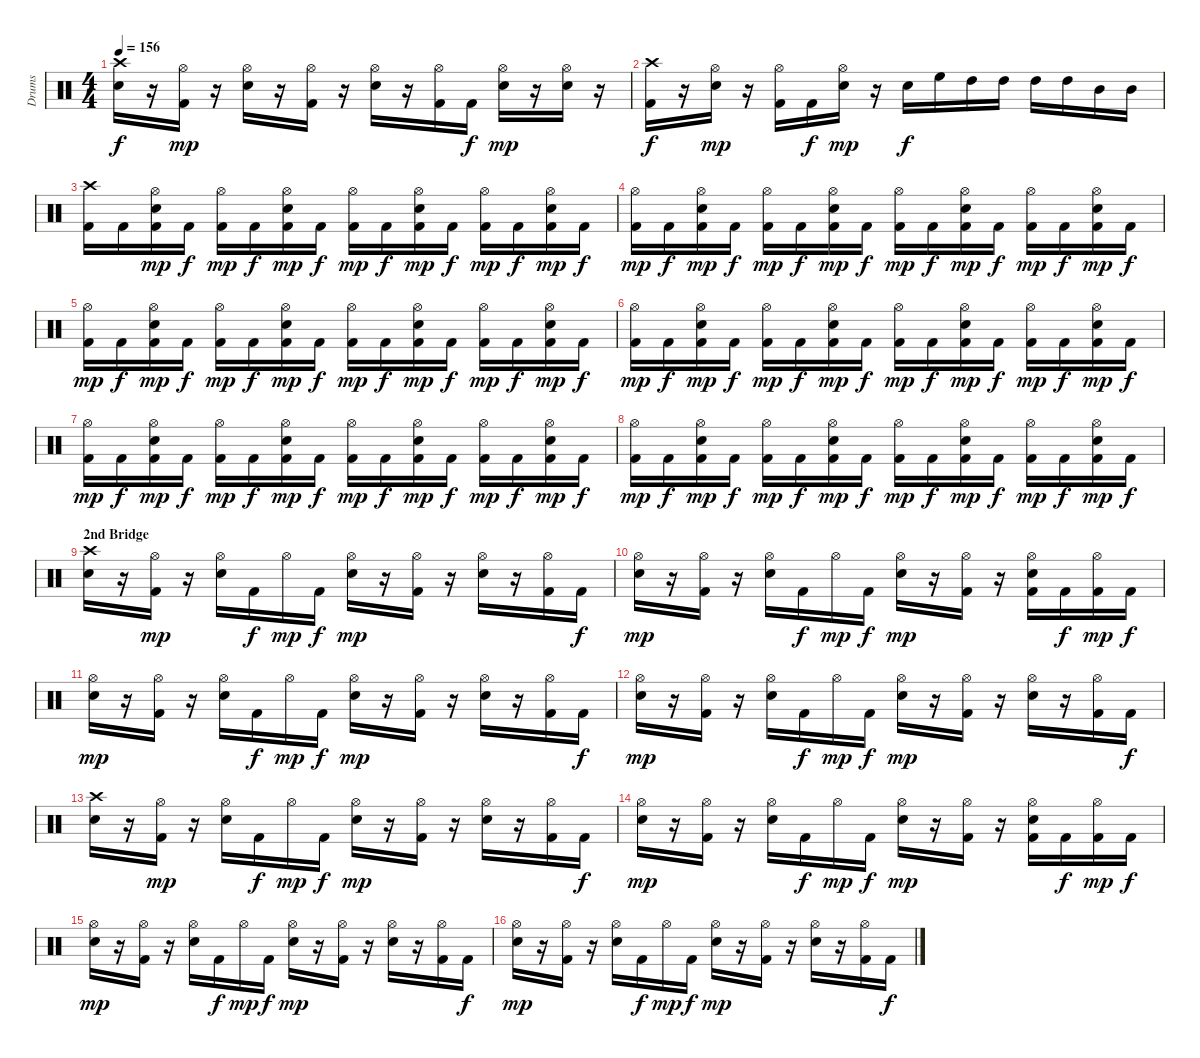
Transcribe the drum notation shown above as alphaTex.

\track ("Drums" "Drums") {instrument percussion}
\staff {score}
\articulation defaults
\ts (4 4)
\tempo 156
\clef neutral
\ks c
("Snare (hit) 2" "Crash high (hit)").16{dy f} r.16 ("Kick (hit) 2" "Hi-Hat (open)").16{dy mp} r.16 ("Snare (hit) 2" "Hi-Hat (open)").16 r.16 ("Kick (hit) 2" "Hi-Hat (open)").16 r.16 ("Snare (hit) 2" "Hi-Hat (open)").16 r.16 ("Kick (hit) 2" "Hi-Hat (open)").16 "Kick (hit) 2".16{dy f} ("Snare (hit) 2" "Hi-Hat (open)").16{dy mp} r.16 ("Snare (hit) 2" "Hi-Hat (open)").16 r.16 |
("Kick (hit) 2" "Crash high (hit)").16{dy f} r.16 ("Snare (hit) 2" "Hi-Hat (open)").16{dy mp} r.16 ("Kick (hit) 2" "Hi-Hat (open)").16 "Kick (hit) 2".16{dy f} ("Snare (hit) 2" "Hi-Hat (open)").16{dy mp} r.16 "Snare (hit) 2".16{dy f} "High Floor Tom (hit)".16 "High Tom (hit)".16 "High Tom (hit)".16 "High Tom (hit)".16 "High Tom (hit)".16 "Mid Tom (hit)".16 "Mid Tom (hit)".16 |
\section ("" "")
("Kick (hit) 2" "Crash high (hit)").16 "Kick (hit) 2".16 ("Snare (hit) 2" "Kick (hit) 2" "Hi-Hat (open)").16{dy mp} "Kick (hit) 2".16{dy f} ("Kick (hit) 2" "Hi-Hat (open)").16{dy mp} "Kick (hit) 2".16{dy f} ("Snare (hit) 2" "Kick (hit) 2" "Hi-Hat (open)").16{dy mp} "Kick (hit) 2".16{dy f} ("Kick (hit) 2" "Hi-Hat (open)").16{dy mp} "Kick (hit) 2".16{dy f} ("Snare (hit) 2" "Kick (hit) 2" "Hi-Hat (open)").16{dy mp} "Kick (hit) 2".16{dy f} ("Kick (hit) 2" "Hi-Hat (open)").16{dy mp} "Kick (hit) 2".16{dy f} ("Snare (hit) 2" "Kick (hit) 2" "Hi-Hat (open)").16{dy mp} "Kick (hit) 2".16{dy f} |
("Kick (hit) 2" "Hi-Hat (open)").16{dy mp} "Kick (hit) 2".16{dy f} ("Snare (hit) 2" "Kick (hit) 2" "Hi-Hat (open)").16{dy mp} "Kick (hit) 2".16{dy f} ("Kick (hit) 2" "Hi-Hat (open)").16{dy mp} "Kick (hit) 2".16{dy f} ("Snare (hit) 2" "Kick (hit) 2" "Hi-Hat (open)").16{dy mp} "Kick (hit) 2".16{dy f} ("Kick (hit) 2" "Hi-Hat (open)").16{dy mp} "Kick (hit) 2".16{dy f} ("Snare (hit) 2" "Kick (hit) 2" "Hi-Hat (open)").16{dy mp} "Kick (hit) 2".16{dy f} ("Kick (hit) 2" "Hi-Hat (open)").16{dy mp} "Kick (hit) 2".16{dy f} ("Snare (hit) 2" "Kick (hit) 2" "Hi-Hat (open)").16{dy mp} "Kick (hit) 2".16{dy f} |
("Kick (hit) 2" "Hi-Hat (open)").16{dy mp} "Kick (hit) 2".16{dy f} ("Snare (hit) 2" "Kick (hit) 2" "Hi-Hat (open)").16{dy mp} "Kick (hit) 2".16{dy f} ("Kick (hit) 2" "Hi-Hat (open)").16{dy mp} "Kick (hit) 2".16{dy f} ("Snare (hit) 2" "Kick (hit) 2" "Hi-Hat (open)").16{dy mp} "Kick (hit) 2".16{dy f} ("Kick (hit) 2" "Hi-Hat (open)").16{dy mp} "Kick (hit) 2".16{dy f} ("Snare (hit) 2" "Kick (hit) 2" "Hi-Hat (open)").16{dy mp} "Kick (hit) 2".16{dy f} ("Kick (hit) 2" "Hi-Hat (open)").16{dy mp} "Kick (hit) 2".16{dy f} ("Snare (hit) 2" "Kick (hit) 2" "Hi-Hat (open)").16{dy mp} "Kick (hit) 2".16{dy f} |
("Kick (hit) 2" "Hi-Hat (open)").16{dy mp} "Kick (hit) 2".16{dy f} ("Snare (hit) 2" "Kick (hit) 2" "Hi-Hat (open)").16{dy mp} "Kick (hit) 2".16{dy f} ("Kick (hit) 2" "Hi-Hat (open)").16{dy mp} "Kick (hit) 2".16{dy f} ("Snare (hit) 2" "Kick (hit) 2" "Hi-Hat (open)").16{dy mp} "Kick (hit) 2".16{dy f} ("Kick (hit) 2" "Hi-Hat (open)").16{dy mp} "Kick (hit) 2".16{dy f} ("Snare (hit) 2" "Kick (hit) 2" "Hi-Hat (open)").16{dy mp} "Kick (hit) 2".16{dy f} ("Kick (hit) 2" "Hi-Hat (open)").16{dy mp} "Kick (hit) 2".16{dy f} ("Snare (hit) 2" "Kick (hit) 2" "Hi-Hat (open)").16{dy mp} "Kick (hit) 2".16{dy f} |
("Kick (hit) 2" "Hi-Hat (open)").16{dy mp} "Kick (hit) 2".16{dy f} ("Snare (hit) 2" "Kick (hit) 2" "Hi-Hat (open)").16{dy mp} "Kick (hit) 2".16{dy f} ("Kick (hit) 2" "Hi-Hat (open)").16{dy mp} "Kick (hit) 2".16{dy f} ("Snare (hit) 2" "Kick (hit) 2" "Hi-Hat (open)").16{dy mp} "Kick (hit) 2".16{dy f} ("Kick (hit) 2" "Hi-Hat (open)").16{dy mp} "Kick (hit) 2".16{dy f} ("Snare (hit) 2" "Kick (hit) 2" "Hi-Hat (open)").16{dy mp} "Kick (hit) 2".16{dy f} ("Kick (hit) 2" "Hi-Hat (open)").16{dy mp} "Kick (hit) 2".16{dy f} ("Snare (hit) 2" "Kick (hit) 2" "Hi-Hat (open)").16{dy mp} "Kick (hit) 2".16{dy f} |
("Kick (hit) 2" "Hi-Hat (open)").16{dy mp} "Kick (hit) 2".16{dy f} ("Snare (hit) 2" "Kick (hit) 2" "Hi-Hat (open)").16{dy mp} "Kick (hit) 2".16{dy f} ("Kick (hit) 2" "Hi-Hat (open)").16{dy mp} "Kick (hit) 2".16{dy f} ("Snare (hit) 2" "Kick (hit) 2" "Hi-Hat (open)").16{dy mp} "Kick (hit) 2".16{dy f} ("Kick (hit) 2" "Hi-Hat (open)").16{dy mp} "Kick (hit) 2".16{dy f} ("Snare (hit) 2" "Kick (hit) 2" "Hi-Hat (open)").16{dy mp} "Kick (hit) 2".16{dy f} ("Kick (hit) 2" "Hi-Hat (open)").16{dy mp} "Kick (hit) 2".16{dy f} ("Snare (hit) 2" "Kick (hit) 2" "Hi-Hat (open)").16{dy mp} "Kick (hit) 2".16{dy f} |
\section ("" "2nd Bridge")
("Snare (hit) 2" "Crash high (hit)").16 r.16 ("Kick (hit) 2" "Hi-Hat (open)").16{dy mp} r.16 ("Snare (hit) 2" "Hi-Hat (open)").16 "Kick (hit) 2".16{dy f} "Hi-Hat (open)".16{dy mp} "Kick (hit) 2".16{dy f} ("Snare (hit) 2" "Hi-Hat (open)").16{dy mp} r.16 ("Kick (hit) 2" "Hi-Hat (open)").16 r.16 ("Snare (hit) 2" "Hi-Hat (open)").16 r.16 ("Kick (hit) 2" "Hi-Hat (open)").16 "Kick (hit) 2".16{dy f} |
("Snare (hit) 2" "Hi-Hat (open)").16{dy mp} r.16 ("Kick (hit) 2" "Hi-Hat (open)").16 r.16 ("Snare (hit) 2" "Hi-Hat (open)").16 "Kick (hit) 2".16{dy f} "Hi-Hat (open)".16{dy mp} "Kick (hit) 2".16{dy f} ("Snare (hit) 2" "Hi-Hat (open)").16{dy mp} r.16 ("Kick (hit) 2" "Hi-Hat (open)").16 r.16 ("Kick (hit) 2" "Snare (hit) 2" "Hi-Hat (open)").16 "Kick (hit) 2".16{dy f} ("Kick (hit) 2" "Hi-Hat (open)").16{dy mp} "Kick (hit) 2".16{dy f} |
("Snare (hit) 2" "Hi-Hat (open)").16{dy mp} r.16 ("Kick (hit) 2" "Hi-Hat (open)").16 r.16 ("Snare (hit) 2" "Hi-Hat (open)").16 "Kick (hit) 2".16{dy f} "Hi-Hat (open)".16{dy mp} "Kick (hit) 2".16{dy f} ("Snare (hit) 2" "Hi-Hat (open)").16{dy mp} r.16 ("Kick (hit) 2" "Hi-Hat (open)").16 r.16 ("Snare (hit) 2" "Hi-Hat (open)").16 r.16 ("Kick (hit) 2" "Hi-Hat (open)").16 "Kick (hit) 2".16{dy f} |
("Snare (hit) 2" "Hi-Hat (open)").16{dy mp} r.16 ("Kick (hit) 2" "Hi-Hat (open)").16 r.16 ("Snare (hit) 2" "Hi-Hat (open)").16 "Kick (hit) 2".16{dy f} "Hi-Hat (open)".16{dy mp} "Kick (hit) 2".16{dy f} ("Snare (hit) 2" "Hi-Hat (open)").16{dy mp} r.16 ("Kick (hit) 2" "Hi-Hat (open)").16 r.16 ("Snare (hit) 2" "Hi-Hat (open)").16 r.16 ("Kick (hit) 2" "Hi-Hat (open)").16 "Kick (hit) 2".16{dy f} |
("Snare (hit) 2" "Crash high (hit)").16 r.16 ("Kick (hit) 2" "Hi-Hat (open)").16{dy mp} r.16 ("Snare (hit) 2" "Hi-Hat (open)").16 "Kick (hit) 2".16{dy f} "Hi-Hat (open)".16{dy mp} "Kick (hit) 2".16{dy f} ("Snare (hit) 2" "Hi-Hat (open)").16{dy mp} r.16 ("Kick (hit) 2" "Hi-Hat (open)").16 r.16 ("Snare (hit) 2" "Hi-Hat (open)").16 r.16 ("Kick (hit) 2" "Hi-Hat (open)").16 "Kick (hit) 2".16{dy f} |
("Snare (hit) 2" "Hi-Hat (open)").16{dy mp} r.16 ("Kick (hit) 2" "Hi-Hat (open)").16 r.16 ("Snare (hit) 2" "Hi-Hat (open)").16 "Kick (hit) 2".16{dy f} "Hi-Hat (open)".16{dy mp} "Kick (hit) 2".16{dy f} ("Snare (hit) 2" "Hi-Hat (open)").16{dy mp} r.16 ("Kick (hit) 2" "Hi-Hat (open)").16 r.16 ("Kick (hit) 2" "Snare (hit) 2" "Hi-Hat (open)").16 "Kick (hit) 2".16{dy f} ("Kick (hit) 2" "Hi-Hat (open)").16{dy mp} "Kick (hit) 2".16{dy f} |
("Snare (hit) 2" "Hi-Hat (open)").16{dy mp} r.16 ("Kick (hit) 2" "Hi-Hat (open)").16 r.16 ("Snare (hit) 2" "Hi-Hat (open)").16 "Kick (hit) 2".16{dy f} "Hi-Hat (open)".16{dy mp} "Kick (hit) 2".16{dy f} ("Snare (hit) 2" "Hi-Hat (open)").16{dy mp} r.16 ("Kick (hit) 2" "Hi-Hat (open)").16 r.16 ("Snare (hit) 2" "Hi-Hat (open)").16 r.16 ("Kick (hit) 2" "Hi-Hat (open)").16 "Kick (hit) 2".16{dy f} |
("Snare (hit) 2" "Hi-Hat (open)").16{dy mp} r.16 ("Kick (hit) 2" "Hi-Hat (open)").16 r.16 ("Snare (hit) 2" "Hi-Hat (open)").16 "Kick (hit) 2".16{dy f} "Hi-Hat (open)".16{dy mp} "Kick (hit) 2".16{dy f} ("Snare (hit) 2" "Hi-Hat (open)").16{dy mp} r.16 ("Kick (hit) 2" "Hi-Hat (open)").16 r.16 ("Snare (hit) 2" "Hi-Hat (open)").16 r.16 ("Kick (hit) 2" "Hi-Hat (open)").16 "Kick (hit) 2".16{dy f}
